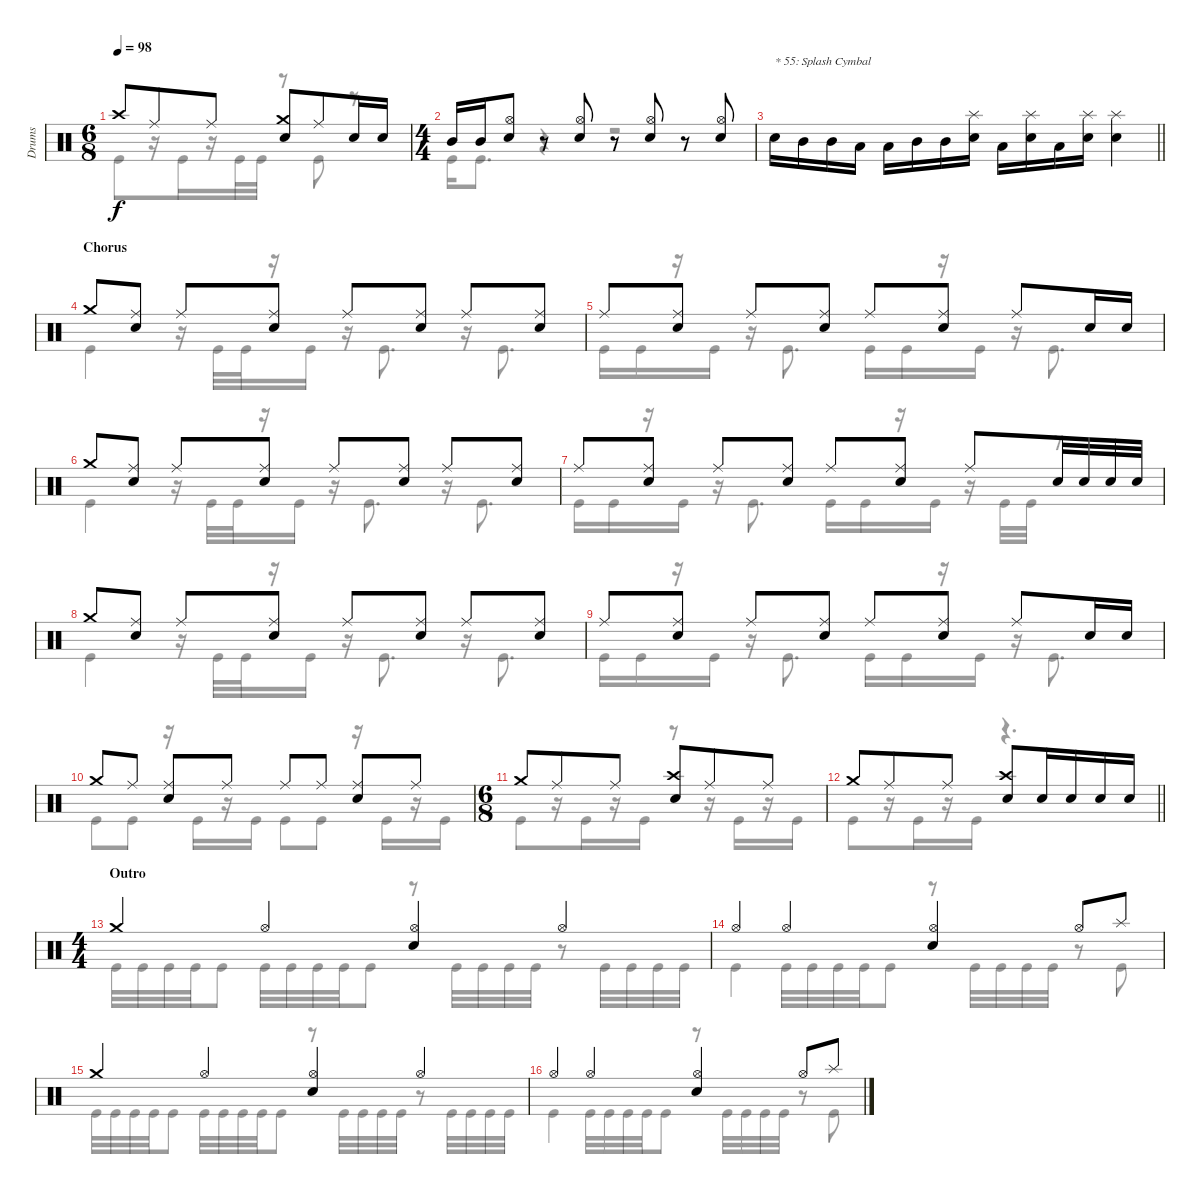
\track ("Drums" "Drums") {instrument percussion}
\staff {score}
\articulation defaults
\voice
\ts (6 8)
\tempo 98
\clef neutral
\ks c "Crash high (hit)".8{dy f} "Ride (middle)".8 "Ride (middle)".8
("Crash medium (hit)" "Electric Snare (hit)").8 "Ride (middle)".8 "Electric Snare (hit)".16 "Electric Snare (hit)".16 |
\ts (4 4)
"Mid Tom (hit)".16 "Mid Tom (hit)".16 ("Hi-Hat (open)" "Electric Snare (hit)").8 r.8 ("Hi-Hat (open)" "Electric Snare (hit)").8 r.8 ("Hi-Hat (open)" "Electric Snare (hit)").8 r.8 ("Hi-Hat (open)" "Electric Snare (hit)").8 |
\barLineRight lightlight "Electric Snare (hit)".16{txt "* 55: Splash Cymbal"} "Mid Tom (hit)".16 "Mid Tom (hit)".16 "Low Tom (hit)".16 "Low Tom (hit)".16 "Mid Tom (hit)".16 "Mid Tom (hit)".16
("Splash (hit)" "Electric Snare (hit)").16 "Low Tom (hit)".16 ("Splash (hit)" "Electric Snare (hit)").16 "Low Tom (hit)".16 ("Splash (hit)" "Electric Snare (hit)").16 ("Splash (hit)" "Electric Snare (hit)").4 |
\section ("" "Chorus")
"Crash medium (hit)".8 ("Ride (middle)" "Electric Snare (hit)").8 "Ride (middle)".8 ("Ride (middle)" "Electric Snare (hit)").8 "Ride (middle)".8 ("Ride (middle)" "Electric Snare (hit)").8 "Ride (middle)".8 ("Ride (middle)" "Electric Snare (hit)").8 |
"Ride (middle)".8 ("Ride (middle)" "Electric Snare (hit)").8 "Ride (middle)".8 ("Ride (middle)" "Electric Snare (hit)").8 "Ride (middle)".8 ("Ride (middle)" "Electric Snare (hit)").8 "Ride (middle)".8 "Electric Snare (hit)".16 "Electric Snare (hit)".16 |
"Crash medium (hit)".8 ("Ride (middle)" "Electric Snare (hit)").8 "Ride (middle)".8 ("Ride (middle)" "Electric Snare (hit)").8 "Ride (middle)".8 ("Ride (middle)" "Electric Snare (hit)").8 "Ride (middle)".8 ("Ride (middle)" "Electric Snare (hit)").8 |
"Ride (middle)".8 ("Ride (middle)" "Electric Snare (hit)").8 "Ride (middle)".8 ("Ride (middle)" "Electric Snare (hit)").8 "Ride (middle)".8 ("Ride (middle)" "Electric Snare (hit)").8 "Ride (middle)".8 "Electric Snare (hit)".32 "Electric Snare (hit)".32 "Electric Snare (hit)".32 "Electric Snare (hit)".32 |
"Crash medium (hit)".8 ("Ride (middle)" "Electric Snare (hit)").8 "Ride (middle)".8 ("Ride (middle)" "Electric Snare (hit)").8 "Ride (middle)".8 ("Ride (middle)" "Electric Snare (hit)").8 "Ride (middle)".8 ("Ride (middle)" "Electric Snare (hit)").8 |
"Ride (middle)".8 ("Ride (middle)" "Electric Snare (hit)").8 "Ride (middle)".8 ("Ride (middle)" "Electric Snare (hit)").8 "Ride (middle)".8 ("Ride (middle)" "Electric Snare (hit)").8 "Ride (middle)".8 "Electric Snare (hit)".16 "Electric Snare (hit)".16 |
"Crash medium (hit)".8 "Ride (middle)".8 ("Ride (middle)" "Electric Snare (hit)").8 "Ride (middle)".8 "Ride (middle)".8 "Ride (middle)".8 ("Ride (middle)" "Electric Snare (hit)").8 "Ride (middle)".8 |
\ts (6 8)
"Crash medium (hit)".8 "Ride (middle)".8 "Ride (middle)".8 ("Crash high (hit)" "Electric Snare (hit)").8 "Ride (middle)".8 "Ride (middle)".8 |
\barLineRight lightlight "Crash medium (hit)".8 "Ride (middle)".8 "Ride (middle)".8
("Crash high (hit)" "Electric Snare (hit)").8 "Electric Snare (hit)".16 "Electric Snare (hit)".16 "Electric Snare (hit)".16 "Electric Snare (hit)".16 |
\ts (4 4)
\section ("" "Outro")
"Crash medium (hit)".4 "Hi-Hat (open)".4 ("Hi-Hat (open)" "Electric Snare (hit)").4 "Hi-Hat (open)".4 |
"Hi-Hat (open)".4 "Hi-Hat (open)".4 ("Hi-Hat (open)" "Electric Snare (hit)").4 "Hi-Hat (open)".8 "Splash (hit)".8 |
"Crash medium (hit)".4 "Hi-Hat (open)".4 ("Hi-Hat (open)" "Electric Snare (hit)").4 "Hi-Hat (open)".4 |
"Hi-Hat (open)".4 "Hi-Hat (open)".4 ("Hi-Hat (open)" "Electric Snare (hit)").4 "Hi-Hat (open)".8 "Splash (hit)".8
\voice
\clef neutral
\ottava regular
\simile none
\ks c "Kick (hit)".8{dy f}
r.16 "Kick (hit)".16 r.16 "Kick (hit)".32 "Kick (hit)".32 r.8 "Kick (hit)".8 r.8 |
"Kick (hit)".16 "Kick (hit)".8{d} r.4 r.2 |
\barLineRight lightlight
|
"Kick (hit)".4 r.16 "Kick (hit)".32 "Kick (hit)".32 r.16 "Kick (hit)".16 r.16 "Kick (hit)".8{d} r.16 "Kick (hit)".8{d} |
"Kick (hit)".16 "Kick (hit)".16 r.16 "Kick (hit)".16 r.16 "Kick (hit)".8{d} "Kick (hit)".16 "Kick (hit)".16 r.16 "Kick (hit)".16 r.16 "Kick (hit)".8{d} |
"Kick (hit)".4 r.16 "Kick (hit)".32 "Kick (hit)".32 r.16 "Kick (hit)".16 r.16 "Kick (hit)".8{d} r.16 "Kick (hit)".8{d} |
"Kick (hit)".16 "Kick (hit)".16 r.16 "Kick (hit)".16 r.16 "Kick (hit)".8{d} "Kick (hit)".16 "Kick (hit)".16 r.16 "Kick (hit)".16 r.16 "Kick (hit)".32 "Kick (hit)".32 r.8 |
"Kick (hit)".4 r.16 "Kick (hit)".32 "Kick (hit)".32 r.16 "Kick (hit)".16 r.16 "Kick (hit)".8{d} r.16 "Kick (hit)".8{d} |
"Kick (hit)".16 "Kick (hit)".16 r.16 "Kick (hit)".16 r.16 "Kick (hit)".8{d} "Kick (hit)".16 "Kick (hit)".16 r.16 "Kick (hit)".16 r.16 "Kick (hit)".8{d} |
"Kick (hit)".8 "Kick (hit)".8 r.16 "Kick (hit)".16 r.16 "Kick (hit)".16 "Kick (hit)".8 "Kick (hit)".8 r.16 "Kick (hit)".16 r.16 "Kick (hit)".16 |
"Kick (hit)".8 r.16 "Kick (hit)".16 r.16 "Kick (hit)".16 r.8 r.16 "Kick (hit)".16 r.16 "Kick (hit)".16 |
\barLineRight lightlight "Kick (hit)".8
r.16 "Kick (hit)".16 r.16 "Kick (hit)".16 r.4{d} |
"Kick (hit)".32 "Kick (hit)".32 "Kick (hit)".32 "Kick (hit)".32 "Kick (hit)".8 "Kick (hit)".32 "Kick (hit)".32 "Kick (hit)".32 "Kick (hit)".32 "Kick (hit)".8 r.8 "Kick (hit)".32 "Kick (hit)".32 "Kick (hit)".32 "Kick (hit)".32 r.8 "Kick (hit)".32 "Kick (hit)".32 "Kick (hit)".32 "Kick (hit)".32 |
"Kick (hit)".4 "Kick (hit)".32 "Kick (hit)".32 "Kick (hit)".32 "Kick (hit)".32 "Kick (hit)".8 r.8 "Kick (hit)".32 "Kick (hit)".32 "Kick (hit)".32 "Kick (hit)".32 r.8 "Kick (hit)".8 |
"Kick (hit)".32 "Kick (hit)".32 "Kick (hit)".32 "Kick (hit)".32 "Kick (hit)".8 "Kick (hit)".32 "Kick (hit)".32 "Kick (hit)".32 "Kick (hit)".32 "Kick (hit)".8 r.8 "Kick (hit)".32 "Kick (hit)".32 "Kick (hit)".32 "Kick (hit)".32 r.8 "Kick (hit)".32 "Kick (hit)".32 "Kick (hit)".32 "Kick (hit)".32 |
"Kick (hit)".4 "Kick (hit)".32 "Kick (hit)".32 "Kick (hit)".32 "Kick (hit)".32 "Kick (hit)".8 r.8 "Kick (hit)".32 "Kick (hit)".32 "Kick (hit)".32 "Kick (hit)".32 r.8 "Kick (hit)".8
